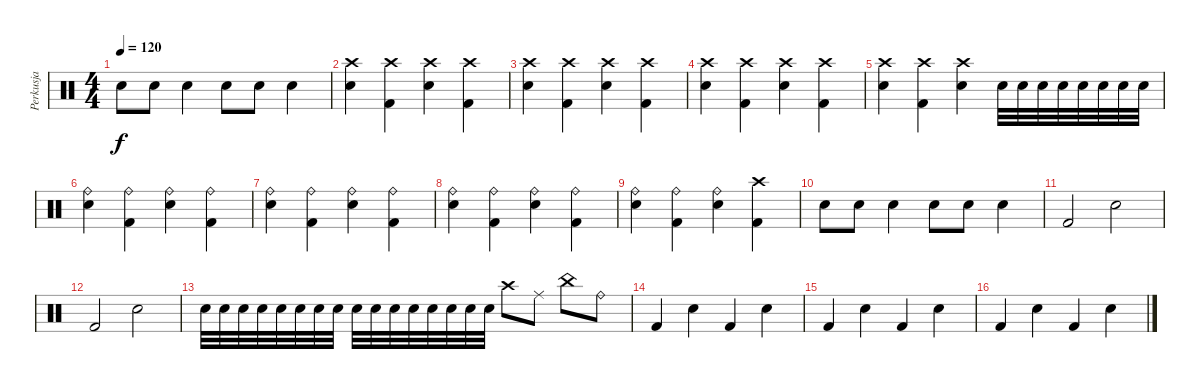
\track ("Perkusja" "Perkusja") {instrument percussion}
\staff {score}
\articulation defaults
\ts (4 4)
\tempo 120
\clef neutral
\ks c "Snare (hit) 2".8{dy f} "Snare (hit) 2".8 "Snare (hit) 2".4 "Snare (hit) 2".8 "Snare (hit) 2".8 "Snare (hit) 2".4
|
("Crash high (hit)" "Snare (hit) 2").4 ("Crash high (hit)" "Kick (hit) 2").4 ("Crash high (hit)" "Snare (hit) 2").4 ("Crash high (hit)" "Kick (hit) 2").4 |
("Crash high (hit)" "Snare (hit) 2").4 ("Crash high (hit)" "Kick (hit) 2").4 ("Crash high (hit)" "Snare (hit) 2").4 ("Crash high (hit)" "Kick (hit) 2").4 |
("Crash high (hit)" "Snare (hit) 2").4 ("Crash high (hit)" "Kick (hit) 2").4 ("Crash high (hit)" "Snare (hit) 2").4 ("Crash high (hit)" "Kick (hit) 2").4 |
("Crash high (hit)" "Snare (hit) 2").4 ("Crash high (hit)" "Kick (hit) 2").4 ("Crash high (hit)" "Snare (hit) 2").4 "Snare (hit) 2".32 "Snare (hit) 2".32 "Snare (hit) 2".32 "Snare (hit) 2".32 "Snare (hit) 2".32 "Snare (hit) 2".32 "Snare (hit) 2".32 "Snare (hit) 2".32 |
("Ride (bell)" "Snare (hit) 2").4 ("Ride (bell)" "Kick (hit) 2").4 ("Ride (bell)" "Snare (hit) 2").4 ("Ride (bell)" "Kick (hit) 2").4 |
("Ride (bell)" "Snare (hit) 2").4 ("Ride (bell)" "Kick (hit) 2").4 ("Ride (bell)" "Snare (hit) 2").4 ("Ride (bell)" "Kick (hit) 2").4 |
("Ride (bell)" "Snare (hit) 2").4 ("Ride (bell)" "Kick (hit) 2").4 ("Ride (bell)" "Snare (hit) 2").4 ("Ride (bell)" "Kick (hit) 2").4 |
("Ride (bell)" "Snare (hit) 2").4 ("Ride (bell)" "Kick (hit) 2").4 ("Ride (bell)" "Snare (hit) 2").4 ("Crash high (hit)" "Kick (hit) 2").4 |
"Snare (hit) 2".8 "Snare (hit) 2".8 "Snare (hit) 2".4 "Snare (hit) 2".8 "Snare (hit) 2".8 "Snare (hit) 2".4 |
"Kick (hit) 2".2 "Snare (hit) 2".2 |
"Kick (hit) 2".2 "Snare (hit) 2".2 |
"Snare (hit) 2".32 "Snare (hit) 2".32 "Snare (hit) 2".32 "Snare (hit) 2".32 "Snare (hit) 2".32 "Snare (hit) 2".32 "Snare (hit) 2".32 "Snare (hit) 2".32 "Snare (hit) 2".32 "Snare (hit) 2".32 "Snare (hit) 2".32 "Snare (hit) 2".32 "Snare (hit) 2".32 "Snare (hit) 2".32 "Snare (hit) 2".32 "Snare (hit) 2".32 "Crash high (hit)".8 "Ride (middle)".8 "China (hit)".8 "Ride (bell)".8 |
"Kick (hit) 2".4 "Snare (hit) 2".4 "Kick (hit) 2".4 "Snare (hit) 2".4 |
"Kick (hit) 2".4 "Snare (hit) 2".4 "Kick (hit) 2".4 "Snare (hit) 2".4 |
"Kick (hit) 2".4 "Snare (hit) 2".4 "Kick (hit) 2".4 "Snare (hit) 2".4
